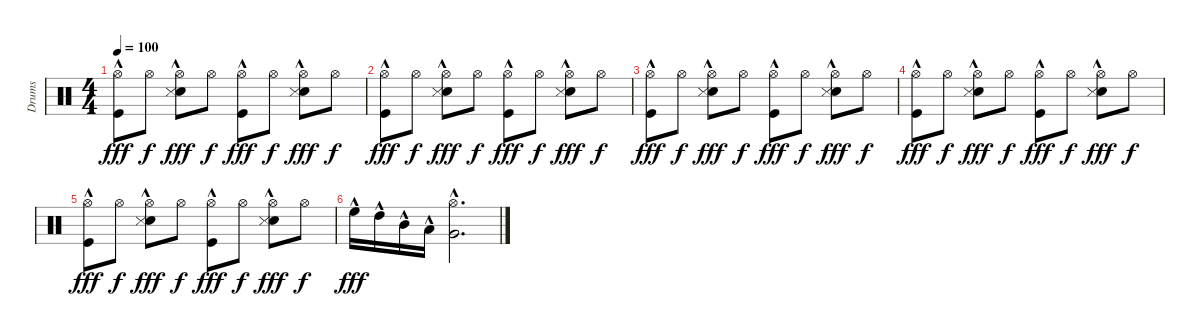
\track ("Drums" "Drums") {instrument percussion}
\staff {score}
\articulation defaults
\ts (4 4)
\tempo 100
\clef neutral
\ks c
("Hi-Hat (open)" "Kick (hit)"{hac}).8{dy fff} "Hi-Hat (open)".8{dy f} ("Hi-Hat (open)" "Snare (hit) 2"{hac} "Metronome (hit)").8{dy fff} "Hi-Hat (open)".8{dy f} ("Hi-Hat (open)" "Kick (hit)"{hac}).8{dy fff} "Hi-Hat (open)".8{dy f} ("Hi-Hat (open)" "Snare (hit) 2"{hac} "Metronome (hit)").8{dy fff} "Hi-Hat (open)".8{dy f} |
("Hi-Hat (open)" "Kick (hit)"{hac}).8{dy fff} "Hi-Hat (open)".8{dy f} ("Hi-Hat (open)" "Snare (hit) 2"{hac} "Metronome (hit)").8{dy fff} "Hi-Hat (open)".8{dy f} ("Hi-Hat (open)" "Kick (hit)"{hac}).8{dy fff} "Hi-Hat (open)".8{dy f} ("Hi-Hat (open)" "Snare (hit) 2"{hac} "Metronome (hit)").8{dy fff} "Hi-Hat (open)".8{dy f} |
("Hi-Hat (open)" "Kick (hit)"{hac}).8{dy fff} "Hi-Hat (open)".8{dy f} ("Hi-Hat (open)" "Snare (hit) 2"{hac} "Metronome (hit)").8{dy fff} "Hi-Hat (open)".8{dy f} ("Hi-Hat (open)" "Kick (hit)"{hac}).8{dy fff} "Hi-Hat (open)".8{dy f} ("Hi-Hat (open)" "Snare (hit) 2"{hac} "Metronome (hit)").8{dy fff} "Hi-Hat (open)".8{dy f} |
("Hi-Hat (open)" "Kick (hit)"{hac}).8{dy fff} "Hi-Hat (open)".8{dy f} ("Hi-Hat (open)" "Snare (hit) 2"{hac} "Metronome (hit)").8{dy fff} "Hi-Hat (open)".8{dy f} ("Hi-Hat (open)" "Kick (hit)"{hac}).8{dy fff} "Hi-Hat (open)".8{dy f} ("Hi-Hat (open)" "Snare (hit) 2"{hac} "Metronome (hit)").8{dy fff} "Hi-Hat (open)".8{dy f} |
("Hi-Hat (open)" "Kick (hit)"{hac}).8{dy fff} "Hi-Hat (open)".8{dy f} ("Hi-Hat (open)" "Snare (hit) 2"{hac} "Metronome (hit)").8{dy fff} "Hi-Hat (open)".8{dy f} ("Hi-Hat (open)" "Kick (hit)"{hac}).8{dy fff} "Hi-Hat (open)".8{dy f} ("Hi-Hat (open)" "Snare (hit) 2"{hac} "Metronome (hit)").8{dy fff} "Hi-Hat (open)".8{dy f} |
"High Floor Tom (hit)"{hac}.16{dy fff} "High Tom (hit)"{hac}.16 "Mid Tom (hit)"{hac}.16 "Low Tom (hit)"{hac}.16 ("Very Low Tom (hit)"{hac} "Hi-Hat (open)"{hac}).2{d}
